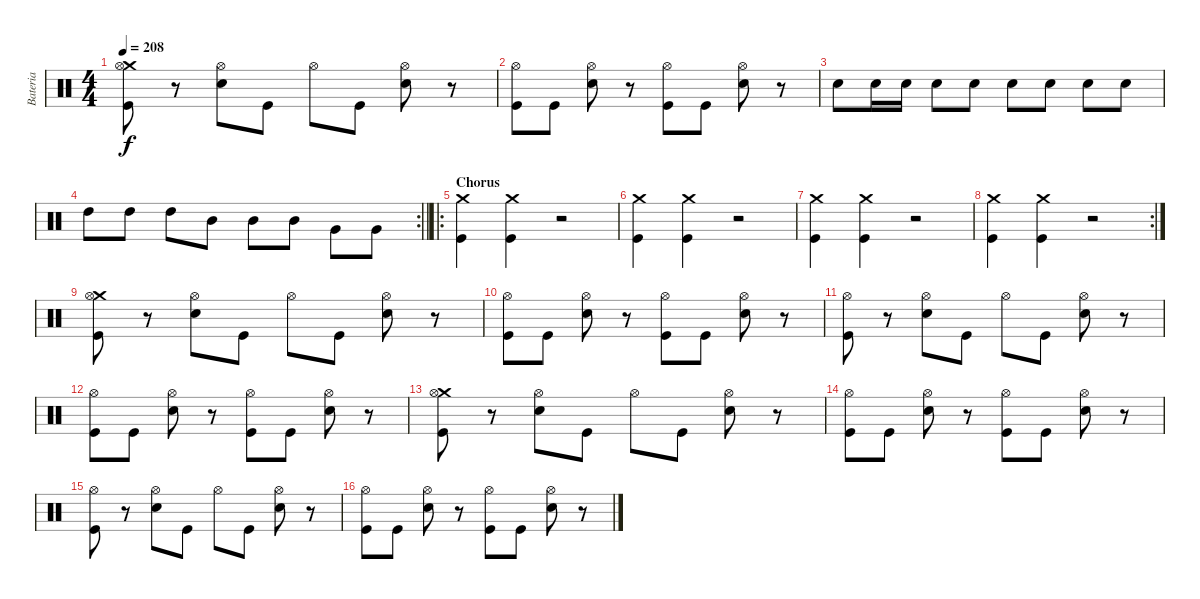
\track ("Bateria" "Bateria") {instrument percussion}
\staff {score}
\articulation defaults
\ts (4 4)
\tempo 208
\clef neutral
\ks c
("Crash medium (hit)" "Hi-Hat (open)" "Kick (hit)").8{dy f} r.8 ("Hi-Hat (open)" "Electric Snare (hit)").8 "Kick (hit)".8 "Hi-Hat (open)".8 "Kick (hit)".8 ("Hi-Hat (open)" "Electric Snare (hit)").8 r.8 |
("Hi-Hat (open)" "Kick (hit)").8 "Kick (hit)".8 ("Hi-Hat (open)" "Electric Snare (hit)").8 r.8 ("Hi-Hat (open)" "Kick (hit)").8 "Kick (hit)".8 ("Hi-Hat (open)" "Electric Snare (hit)").8 r.8 |
"Electric Snare (hit)".8 "Electric Snare (hit)".16 "Electric Snare (hit)".16 "Electric Snare (hit)".8 "Electric Snare (hit)".8 "Electric Snare (hit)".8 "Electric Snare (hit)".8 "Electric Snare (hit)".8 "Electric Snare (hit)".8 |
\rc 2
\barLineRight lightlight "High Tom (hit)".8 "High Tom (hit)".8 "High Tom (hit)".8 "Mid Tom (hit)".8 "Mid Tom (hit)".8 "Mid Tom (hit)".8 "Very Low Tom (hit)".8{beam Down beam merge} "Very Low Tom (hit)".8{beam Down}
|
\ro
\section ("" "Chorus")
("Crash medium (hit)" "Kick (hit)").4 ("Crash medium (hit)" "Kick (hit)").4 r.2 |
("Crash medium (hit)" "Kick (hit)").4 ("Crash medium (hit)" "Kick (hit)").4 r.2 |
("Crash medium (hit)" "Kick (hit)").4 ("Crash medium (hit)" "Kick (hit)").4 r.2 |
\rc 2
("Crash medium (hit)" "Kick (hit)").4 ("Crash medium (hit)" "Kick (hit)").4 r.2 |
("Crash medium (hit)" "Hi-Hat (open)" "Kick (hit)").8 r.8 ("Hi-Hat (open)" "Electric Snare (hit)").8 "Kick (hit)".8 "Hi-Hat (open)".8 "Kick (hit)".8 ("Hi-Hat (open)" "Electric Snare (hit)").8 r.8 |
("Hi-Hat (open)" "Kick (hit)").8 "Kick (hit)".8 ("Hi-Hat (open)" "Electric Snare (hit)").8 r.8 ("Hi-Hat (open)" "Kick (hit)").8 "Kick (hit)".8 ("Hi-Hat (open)" "Electric Snare (hit)").8 r.8 |
("Hi-Hat (open)" "Kick (hit)").8 r.8 ("Hi-Hat (open)" "Electric Snare (hit)").8 "Kick (hit)".8 "Hi-Hat (open)".8 "Kick (hit)".8 ("Hi-Hat (open)" "Electric Snare (hit)").8 r.8 |
("Hi-Hat (open)" "Kick (hit)").8 "Kick (hit)".8 ("Hi-Hat (open)" "Electric Snare (hit)").8 r.8 ("Hi-Hat (open)" "Kick (hit)").8 "Kick (hit)".8 ("Hi-Hat (open)" "Electric Snare (hit)").8 r.8 |
("Crash medium (hit)" "Hi-Hat (open)" "Kick (hit)").8 r.8 ("Hi-Hat (open)" "Electric Snare (hit)").8 "Kick (hit)".8 "Hi-Hat (open)".8 "Kick (hit)".8 ("Hi-Hat (open)" "Electric Snare (hit)").8 r.8 |
("Hi-Hat (open)" "Kick (hit)").8 "Kick (hit)".8 ("Hi-Hat (open)" "Electric Snare (hit)").8 r.8 ("Hi-Hat (open)" "Kick (hit)").8 "Kick (hit)".8 ("Hi-Hat (open)" "Electric Snare (hit)").8 r.8 |
("Hi-Hat (open)" "Kick (hit)").8 r.8 ("Hi-Hat (open)" "Electric Snare (hit)").8 "Kick (hit)".8 "Hi-Hat (open)".8 "Kick (hit)".8 ("Hi-Hat (open)" "Electric Snare (hit)").8 r.8 |
("Hi-Hat (open)" "Kick (hit)").8 "Kick (hit)".8 ("Hi-Hat (open)" "Electric Snare (hit)").8 r.8 ("Hi-Hat (open)" "Kick (hit)").8 "Kick (hit)".8 ("Hi-Hat (open)" "Electric Snare (hit)").8 r.8
